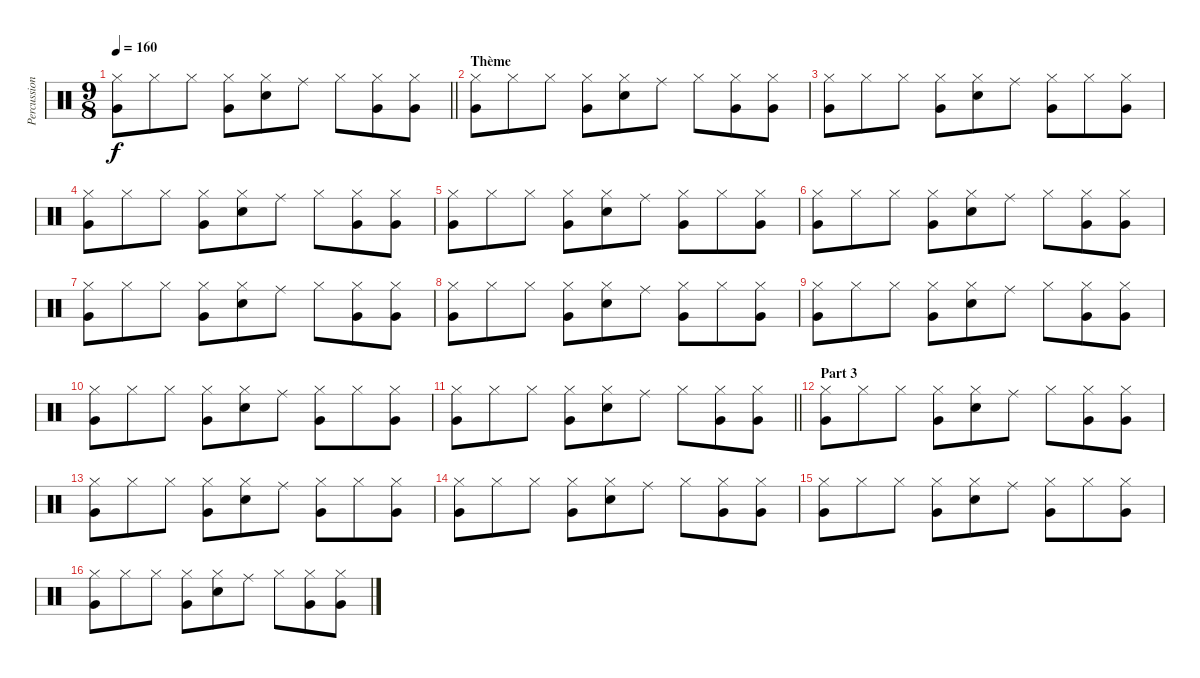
\track ("Percussions" "Percussion") {instrument percussion}
\staff {score}
\articulation defaults
\ts (9 8)
\tempo 160
\clef neutral
\barLineRight lightlight
\ks c
("Hi-Hat (closed)" "Very Low Tom (hit)").8{dy f} "Hi-Hat (closed)".8 "Hi-Hat (closed)".8 ("Hi-Hat (closed)" "Very Low Tom (hit)").8 ("Hi-Hat (closed)" "Snare (hit) 2").8 "Ride (middle)".8 "Hi-Hat (closed)".8 ("Hi-Hat (closed)" "Very Low Tom (hit)").8 ("Hi-Hat (closed)" "Very Low Tom (hit)").8 |
\section ("" "Thème")
("Hi-Hat (closed)" "Very Low Tom (hit)").8 "Hi-Hat (closed)".8 "Hi-Hat (closed)".8 ("Hi-Hat (closed)" "Very Low Tom (hit)").8 ("Hi-Hat (closed)" "Snare (hit) 2").8 "Ride (middle)".8 "Hi-Hat (closed)".8 ("Hi-Hat (closed)" "Very Low Tom (hit)").8 ("Hi-Hat (closed)" "Very Low Tom (hit)").8 |
("Hi-Hat (closed)" "Very Low Tom (hit)").8 "Hi-Hat (closed)".8 "Hi-Hat (closed)".8 ("Hi-Hat (closed)" "Very Low Tom (hit)").8 ("Hi-Hat (closed)" "Snare (hit) 2").8 "Ride (middle)".8 ("Hi-Hat (closed)" "Very Low Tom (hit)").8 "Hi-Hat (closed)".8 ("Hi-Hat (closed)" "Very Low Tom (hit)").8 |
("Hi-Hat (closed)" "Very Low Tom (hit)").8 "Hi-Hat (closed)".8 "Hi-Hat (closed)".8 ("Hi-Hat (closed)" "Very Low Tom (hit)").8 ("Hi-Hat (closed)" "Snare (hit) 2").8 "Ride (middle)".8 "Hi-Hat (closed)".8 ("Hi-Hat (closed)" "Very Low Tom (hit)").8 ("Hi-Hat (closed)" "Very Low Tom (hit)").8 |
("Hi-Hat (closed)" "Very Low Tom (hit)").8 "Hi-Hat (closed)".8 "Hi-Hat (closed)".8 ("Hi-Hat (closed)" "Very Low Tom (hit)").8 ("Hi-Hat (closed)" "Snare (hit) 2").8 "Ride (middle)".8 ("Hi-Hat (closed)" "Very Low Tom (hit)").8 "Hi-Hat (closed)".8 ("Hi-Hat (closed)" "Very Low Tom (hit)").8 |
("Hi-Hat (closed)" "Very Low Tom (hit)").8 "Hi-Hat (closed)".8 "Hi-Hat (closed)".8 ("Hi-Hat (closed)" "Very Low Tom (hit)").8 ("Hi-Hat (closed)" "Snare (hit) 2").8 "Ride (middle)".8 "Hi-Hat (closed)".8 ("Hi-Hat (closed)" "Very Low Tom (hit)").8 ("Hi-Hat (closed)" "Very Low Tom (hit)").8 |
("Hi-Hat (closed)" "Very Low Tom (hit)").8 "Hi-Hat (closed)".8 "Hi-Hat (closed)".8 ("Hi-Hat (closed)" "Very Low Tom (hit)").8 ("Hi-Hat (closed)" "Snare (hit) 2").8 "Ride (middle)".8 "Hi-Hat (closed)".8 ("Hi-Hat (closed)" "Very Low Tom (hit)").8 ("Hi-Hat (closed)" "Very Low Tom (hit)").8 |
("Hi-Hat (closed)" "Very Low Tom (hit)").8 "Hi-Hat (closed)".8 "Hi-Hat (closed)".8 ("Hi-Hat (closed)" "Very Low Tom (hit)").8 ("Hi-Hat (closed)" "Snare (hit) 2").8 "Ride (middle)".8 ("Hi-Hat (closed)" "Very Low Tom (hit)").8 "Hi-Hat (closed)".8 ("Hi-Hat (closed)" "Very Low Tom (hit)").8 |
("Hi-Hat (closed)" "Very Low Tom (hit)").8 "Hi-Hat (closed)".8 "Hi-Hat (closed)".8 ("Hi-Hat (closed)" "Very Low Tom (hit)").8 ("Hi-Hat (closed)" "Snare (hit) 2").8 "Ride (middle)".8 "Hi-Hat (closed)".8 ("Hi-Hat (closed)" "Very Low Tom (hit)").8 ("Hi-Hat (closed)" "Very Low Tom (hit)").8 |
("Hi-Hat (closed)" "Very Low Tom (hit)").8 "Hi-Hat (closed)".8 "Hi-Hat (closed)".8 ("Hi-Hat (closed)" "Very Low Tom (hit)").8 ("Hi-Hat (closed)" "Snare (hit) 2").8 "Ride (middle)".8 ("Hi-Hat (closed)" "Very Low Tom (hit)").8 "Hi-Hat (closed)".8 ("Hi-Hat (closed)" "Very Low Tom (hit)").8 |
\barLineRight lightlight
("Hi-Hat (closed)" "Very Low Tom (hit)").8 "Hi-Hat (closed)".8 "Hi-Hat (closed)".8 ("Hi-Hat (closed)" "Very Low Tom (hit)").8 ("Hi-Hat (closed)" "Snare (hit) 2").8 "Ride (middle)".8 "Hi-Hat (closed)".8 ("Hi-Hat (closed)" "Very Low Tom (hit)").8 ("Hi-Hat (closed)" "Very Low Tom (hit)").8 |
\section ("" "Part 3")
("Hi-Hat (closed)" "Very Low Tom (hit)").8 "Hi-Hat (closed)".8 "Hi-Hat (closed)".8 ("Hi-Hat (closed)" "Very Low Tom (hit)").8 ("Hi-Hat (closed)" "Snare (hit) 2").8 "Ride (middle)".8 "Hi-Hat (closed)".8 ("Hi-Hat (closed)" "Very Low Tom (hit)").8 ("Hi-Hat (closed)" "Very Low Tom (hit)").8 |
("Hi-Hat (closed)" "Very Low Tom (hit)").8 "Hi-Hat (closed)".8 "Hi-Hat (closed)".8 ("Hi-Hat (closed)" "Very Low Tom (hit)").8 ("Hi-Hat (closed)" "Snare (hit) 2").8 "Ride (middle)".8 ("Hi-Hat (closed)" "Very Low Tom (hit)").8 "Hi-Hat (closed)".8 ("Hi-Hat (closed)" "Very Low Tom (hit)").8 |
("Hi-Hat (closed)" "Very Low Tom (hit)").8 "Hi-Hat (closed)".8 "Hi-Hat (closed)".8 ("Hi-Hat (closed)" "Very Low Tom (hit)").8 ("Hi-Hat (closed)" "Snare (hit) 2").8 "Ride (middle)".8 "Hi-Hat (closed)".8 ("Hi-Hat (closed)" "Very Low Tom (hit)").8 ("Hi-Hat (closed)" "Very Low Tom (hit)").8 |
("Hi-Hat (closed)" "Very Low Tom (hit)").8 "Hi-Hat (closed)".8 "Hi-Hat (closed)".8 ("Hi-Hat (closed)" "Very Low Tom (hit)").8 ("Hi-Hat (closed)" "Snare (hit) 2").8 "Ride (middle)".8 ("Hi-Hat (closed)" "Very Low Tom (hit)").8 "Hi-Hat (closed)".8 ("Hi-Hat (closed)" "Very Low Tom (hit)").8 |
("Hi-Hat (closed)" "Very Low Tom (hit)").8 "Hi-Hat (closed)".8 "Hi-Hat (closed)".8 ("Hi-Hat (closed)" "Very Low Tom (hit)").8 ("Hi-Hat (closed)" "Snare (hit) 2").8 "Ride (middle)".8 "Hi-Hat (closed)".8 ("Hi-Hat (closed)" "Very Low Tom (hit)").8 ("Hi-Hat (closed)" "Very Low Tom (hit)").8
